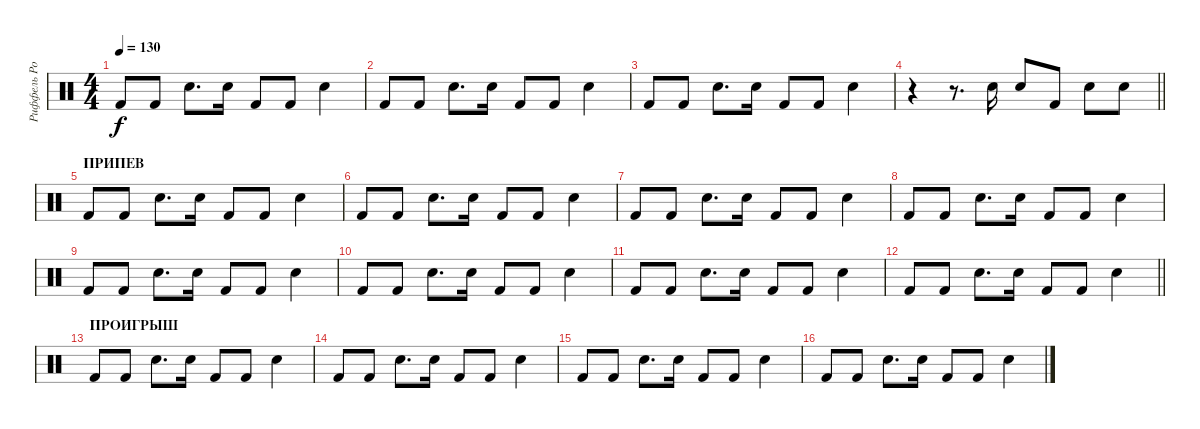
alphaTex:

\track ("Риффель Роман (главные)" "Риффель Ро") {instrument percussion}
\staff {score}
\articulation defaults
\ts (4 4)
\tempo 130
\clef neutral
\ks c "Kick (hit) 2".8{dy f} "Kick (hit) 2".8 "Electric Snare (hit)".8{d} "Electric Snare (hit)".16 "Kick (hit) 2".8 "Kick (hit) 2".8 "Electric Snare (hit)".4
|
"Kick (hit) 2".8 "Kick (hit) 2".8 "Electric Snare (hit)".8{d} "Electric Snare (hit)".16 "Kick (hit) 2".8 "Kick (hit) 2".8 "Electric Snare (hit)".4 |
"Kick (hit) 2".8 "Kick (hit) 2".8 "Electric Snare (hit)".8{d} "Electric Snare (hit)".16 "Kick (hit) 2".8 "Kick (hit) 2".8 "Electric Snare (hit)".4 |
\barLineRight lightlight
r.4 r.8{d} "Electric Snare (hit)".16 "Electric Snare (hit)".8 "Kick (hit) 2".8 "Electric Snare (hit)".8 "Electric Snare (hit)".8 |
\section ("" "ПРИПЕВ")
"Kick (hit) 2".8 "Kick (hit) 2".8 "Electric Snare (hit)".8{d} "Electric Snare (hit)".16 "Kick (hit) 2".8 "Kick (hit) 2".8 "Electric Snare (hit)".4 |
"Kick (hit) 2".8 "Kick (hit) 2".8 "Electric Snare (hit)".8{d} "Electric Snare (hit)".16 "Kick (hit) 2".8 "Kick (hit) 2".8 "Electric Snare (hit)".4 |
"Kick (hit) 2".8 "Kick (hit) 2".8 "Electric Snare (hit)".8{d} "Electric Snare (hit)".16 "Kick (hit) 2".8 "Kick (hit) 2".8 "Electric Snare (hit)".4 |
"Kick (hit) 2".8 "Kick (hit) 2".8 "Electric Snare (hit)".8{d} "Electric Snare (hit)".16 "Kick (hit) 2".8 "Kick (hit) 2".8 "Electric Snare (hit)".4 |
"Kick (hit) 2".8 "Kick (hit) 2".8 "Electric Snare (hit)".8{d} "Electric Snare (hit)".16 "Kick (hit) 2".8 "Kick (hit) 2".8 "Electric Snare (hit)".4 |
"Kick (hit) 2".8 "Kick (hit) 2".8 "Electric Snare (hit)".8{d} "Electric Snare (hit)".16 "Kick (hit) 2".8 "Kick (hit) 2".8 "Electric Snare (hit)".4 |
"Kick (hit) 2".8 "Kick (hit) 2".8 "Electric Snare (hit)".8{d} "Electric Snare (hit)".16 "Kick (hit) 2".8 "Kick (hit) 2".8 "Electric Snare (hit)".4 |
\barLineRight lightlight "Kick (hit) 2".8 "Kick (hit) 2".8 "Electric Snare (hit)".8{d} "Electric Snare (hit)".16 "Kick (hit) 2".8 "Kick (hit) 2".8 "Electric Snare (hit)".4
|
\section ("" "ПРОИГРЫШ")
"Kick (hit) 2".8 "Kick (hit) 2".8 "Electric Snare (hit)".8{d} "Electric Snare (hit)".16 "Kick (hit) 2".8 "Kick (hit) 2".8 "Electric Snare (hit)".4 |
"Kick (hit) 2".8 "Kick (hit) 2".8 "Electric Snare (hit)".8{d} "Electric Snare (hit)".16 "Kick (hit) 2".8 "Kick (hit) 2".8 "Electric Snare (hit)".4 |
"Kick (hit) 2".8 "Kick (hit) 2".8 "Electric Snare (hit)".8{d} "Electric Snare (hit)".16 "Kick (hit) 2".8 "Kick (hit) 2".8 "Electric Snare (hit)".4 |
"Kick (hit) 2".8 "Kick (hit) 2".8 "Electric Snare (hit)".8{d} "Electric Snare (hit)".16 "Kick (hit) 2".8 "Kick (hit) 2".8 "Electric Snare (hit)".4
